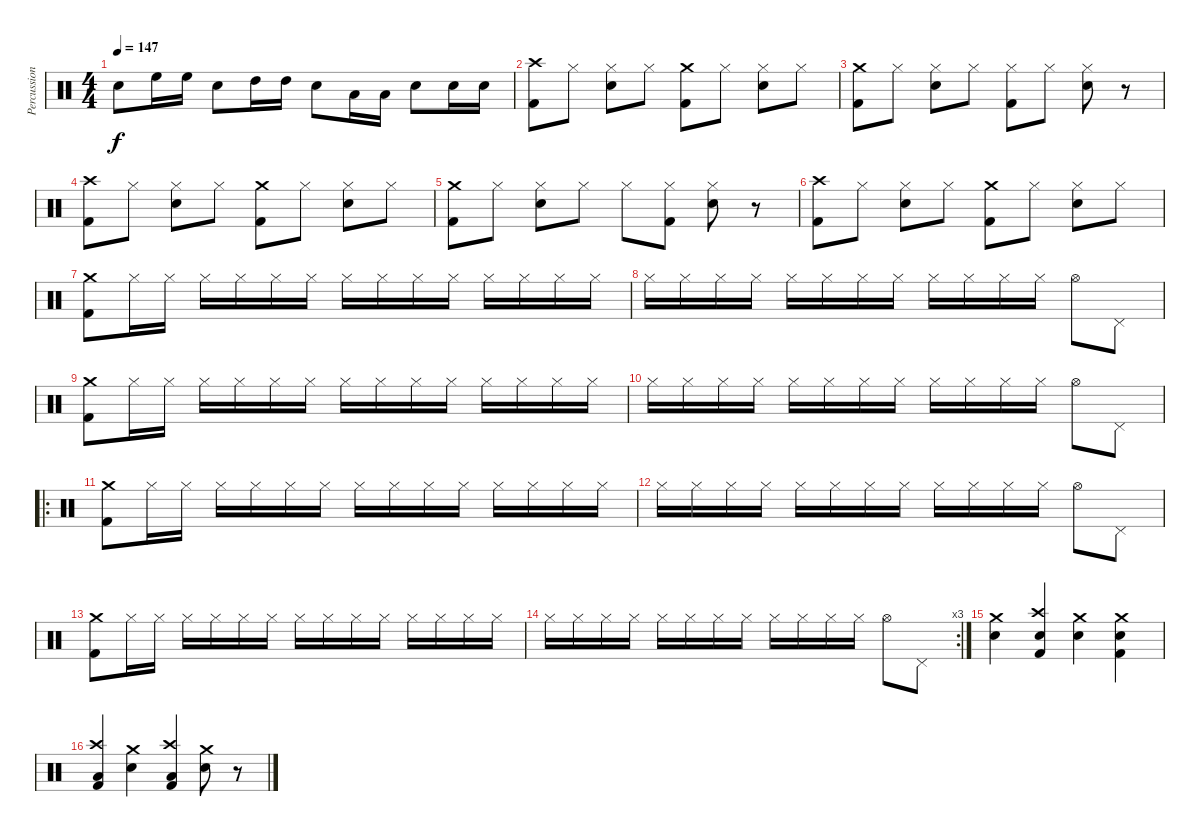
\track ("Percussions" "Percussion") {instrument percussion}
\staff {score}
\articulation defaults
\ts (4 4)
\tempo 147
\clef neutral
\ks c "Electric Snare (hit)".8{dy f} "High Floor Tom (hit)".16 "High Floor Tom (hit)".16 "Electric Snare (hit)".8 "High Tom (hit)".16 "High Tom (hit)".16 "Electric Snare (hit)".8 "Low Tom (hit)".16 "Low Tom (hit)".16 "Electric Snare (hit)".8 "Electric Snare (hit)".16 "Electric Snare (hit)".16
|
("Crash high (hit)" "Kick (hit) 2").8 "Hi-Hat (closed)".8 ("Hi-Hat (closed)" "Electric Snare (hit)").8 "Hi-Hat (closed)".8 ("Crash medium (hit)" "Kick (hit) 2").8 "Hi-Hat (closed)".8 ("Hi-Hat (closed)" "Electric Snare (hit)").8 "Hi-Hat (closed)".8 |
("Crash medium (hit)" "Kick (hit) 2").8 "Hi-Hat (closed)".8 ("Hi-Hat (closed)" "Electric Snare (hit)").8 "Hi-Hat (closed)".8 ("Hi-Hat (closed)" "Kick (hit) 2").8 "Hi-Hat (closed)".8 ("Hi-Hat (closed)" "Electric Snare (hit)").8 r.8 |
("Crash high (hit)" "Kick (hit) 2").8 "Hi-Hat (closed)".8 ("Hi-Hat (closed)" "Electric Snare (hit)").8 "Hi-Hat (closed)".8 ("Crash medium (hit)" "Kick (hit) 2").8 "Hi-Hat (closed)".8 ("Hi-Hat (closed)" "Electric Snare (hit)").8 "Hi-Hat (closed)".8 |
("Crash medium (hit)" "Kick (hit) 2").8 "Hi-Hat (closed)".8 ("Hi-Hat (closed)" "Electric Snare (hit)").8 "Hi-Hat (closed)".8 "Hi-Hat (closed)".8 ("Hi-Hat (closed)" "Kick (hit) 2").8 ("Hi-Hat (closed)" "Electric Snare (hit)").8 r.8 |
("Crash high (hit)" "Kick (hit) 2").8 "Hi-Hat (closed)".8 ("Hi-Hat (closed)" "Electric Snare (hit)").8 "Hi-Hat (closed)".8 ("Crash medium (hit)" "Kick (hit) 2").8 "Hi-Hat (closed)".8 ("Hi-Hat (closed)" "Electric Snare (hit)").8 "Hi-Hat (closed)".8 |
("Crash medium (hit)" "Kick (hit) 2").8 "Hi-Hat (closed)".16 "Hi-Hat (closed)".16 "Hi-Hat (closed)".16 "Hi-Hat (closed)".16 "Hi-Hat (closed)".16 "Hi-Hat (closed)".16 "Hi-Hat (closed)".16 "Hi-Hat (closed)".16 "Hi-Hat (closed)".16 "Hi-Hat (closed)".16 "Hi-Hat (closed)".16 "Hi-Hat (closed)".16 "Hi-Hat (closed)".16 "Hi-Hat (closed)".16 |
"Hi-Hat (closed)".16 "Hi-Hat (closed)".16 "Hi-Hat (closed)".16 "Hi-Hat (closed)".16 "Hi-Hat (closed)".16 "Hi-Hat (closed)".16 "Hi-Hat (closed)".16 "Hi-Hat (closed)".16 "Hi-Hat (closed)".16 "Hi-Hat (closed)".16 "Hi-Hat (closed)".16 "Hi-Hat (closed)".16 "Hi-Hat (open)".8 "Pedal Hi-Hat (hit)".8 |
("Crash medium (hit)" "Kick (hit) 2").8 "Hi-Hat (closed)".16 "Hi-Hat (closed)".16 "Hi-Hat (closed)".16 "Hi-Hat (closed)".16 "Hi-Hat (closed)".16 "Hi-Hat (closed)".16 "Hi-Hat (closed)".16 "Hi-Hat (closed)".16 "Hi-Hat (closed)".16 "Hi-Hat (closed)".16 "Hi-Hat (closed)".16 "Hi-Hat (closed)".16 "Hi-Hat (closed)".16 "Hi-Hat (closed)".16 |
"Hi-Hat (closed)".16 "Hi-Hat (closed)".16 "Hi-Hat (closed)".16 "Hi-Hat (closed)".16 "Hi-Hat (closed)".16 "Hi-Hat (closed)".16 "Hi-Hat (closed)".16 "Hi-Hat (closed)".16 "Hi-Hat (closed)".16 "Hi-Hat (closed)".16 "Hi-Hat (closed)".16 "Hi-Hat (closed)".16 "Hi-Hat (open)".8 "Pedal Hi-Hat (hit)".8 |
\ro
("Crash medium (hit)" "Kick (hit) 2").8 "Hi-Hat (closed)".16 "Hi-Hat (closed)".16 "Hi-Hat (closed)".16 "Hi-Hat (closed)".16 "Hi-Hat (closed)".16 "Hi-Hat (closed)".16 "Hi-Hat (closed)".16 "Hi-Hat (closed)".16 "Hi-Hat (closed)".16 "Hi-Hat (closed)".16 "Hi-Hat (closed)".16 "Hi-Hat (closed)".16 "Hi-Hat (closed)".16 "Hi-Hat (closed)".16 |
"Hi-Hat (closed)".16 "Hi-Hat (closed)".16 "Hi-Hat (closed)".16 "Hi-Hat (closed)".16 "Hi-Hat (closed)".16 "Hi-Hat (closed)".16 "Hi-Hat (closed)".16 "Hi-Hat (closed)".16 "Hi-Hat (closed)".16 "Hi-Hat (closed)".16 "Hi-Hat (closed)".16 "Hi-Hat (closed)".16 "Hi-Hat (open)".8 "Pedal Hi-Hat (hit)".8 |
("Crash medium (hit)" "Kick (hit) 2").8 "Hi-Hat (closed)".16 "Hi-Hat (closed)".16 "Hi-Hat (closed)".16 "Hi-Hat (closed)".16 "Hi-Hat (closed)".16 "Hi-Hat (closed)".16 "Hi-Hat (closed)".16 "Hi-Hat (closed)".16 "Hi-Hat (closed)".16 "Hi-Hat (closed)".16 "Hi-Hat (closed)".16 "Hi-Hat (closed)".16 "Hi-Hat (closed)".16 "Hi-Hat (closed)".16 |
\rc 3 "Hi-Hat (closed)".16 "Hi-Hat (closed)".16 "Hi-Hat (closed)".16 "Hi-Hat (closed)".16 "Hi-Hat (closed)".16 "Hi-Hat (closed)".16 "Hi-Hat (closed)".16 "Hi-Hat (closed)".16 "Hi-Hat (closed)".16 "Hi-Hat (closed)".16 "Hi-Hat (closed)".16 "Hi-Hat (closed)".16 "Hi-Hat (open)".8 "Pedal Hi-Hat (hit)".8
|
("Crash medium (hit)" "Electric Snare (hit)").4 ("Crash high (hit)" "Electric Snare (hit)" "Kick (hit) 2").4 ("Crash medium (hit)" "Electric Snare (hit)").4 ("Crash medium (hit)" "Electric Snare (hit)" "Kick (hit) 2").4 |
("Crash high (hit)" "Low Tom (hit)" "Kick (hit) 2").4 ("Crash medium (hit)" "Electric Snare (hit)").4 ("Crash high (hit)" "Low Tom (hit)" "Kick (hit) 2").4 ("Crash medium (hit)" "Electric Snare (hit)").8 r.8
